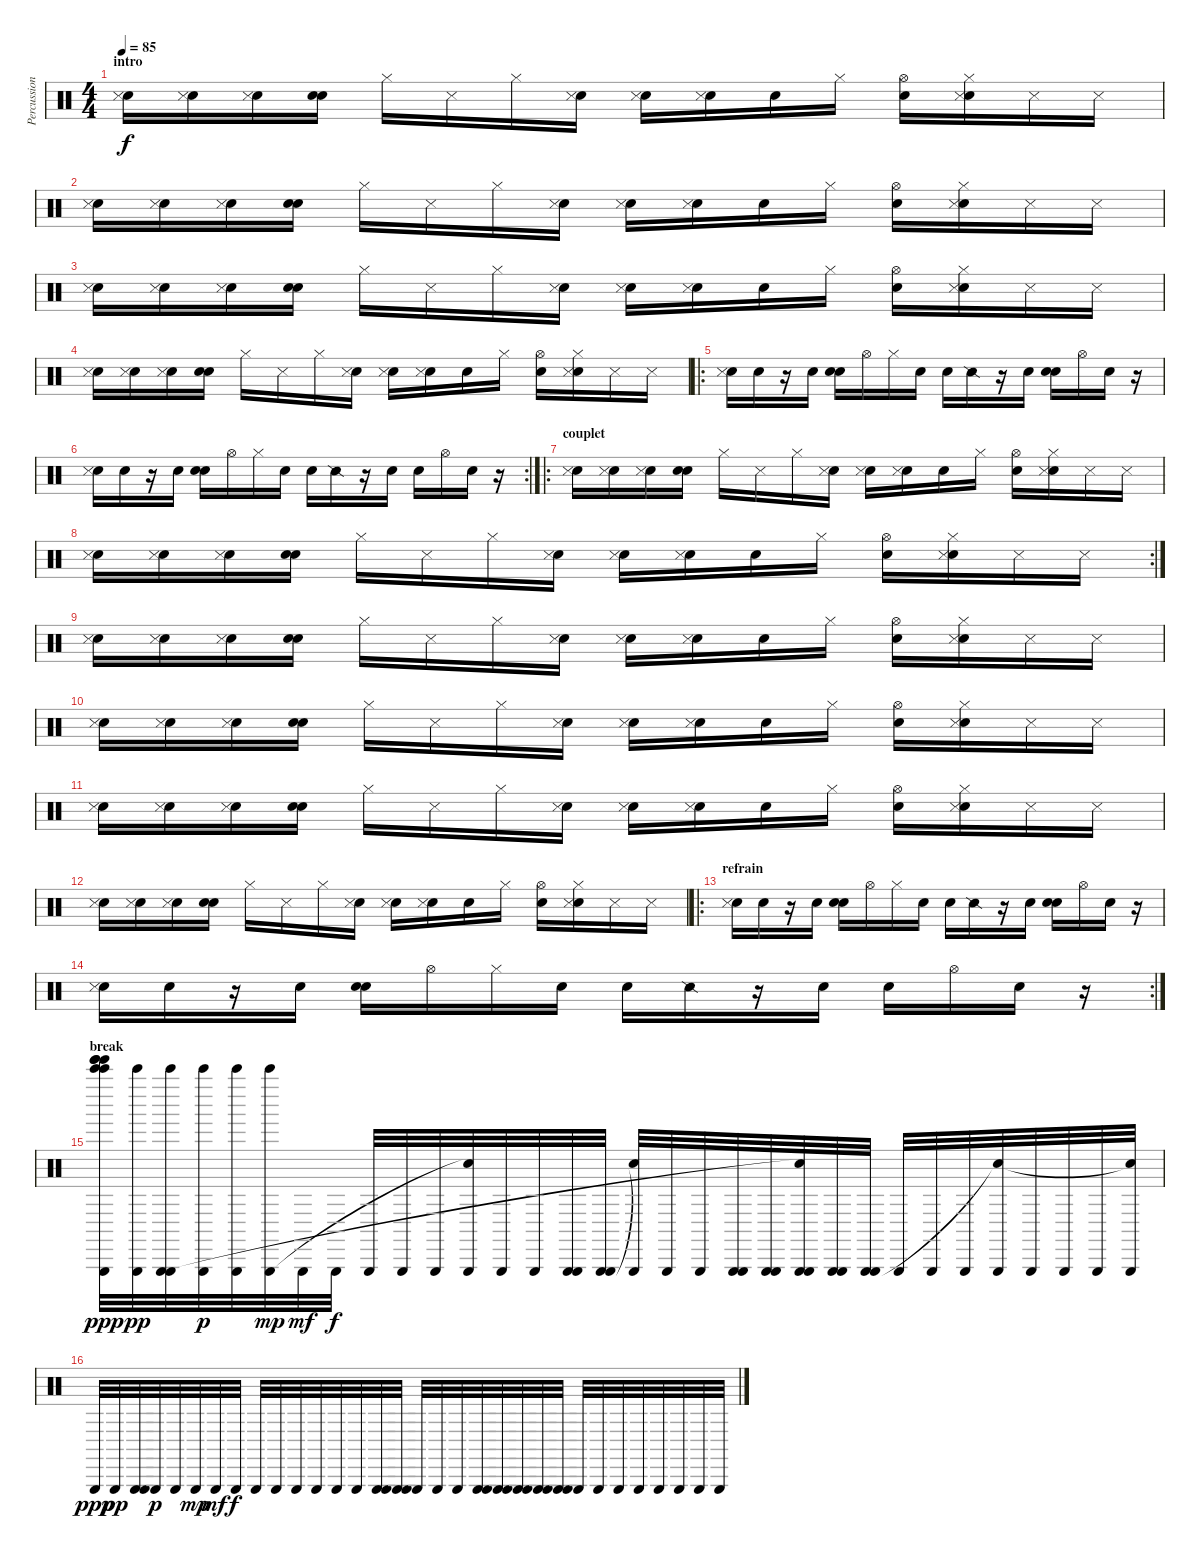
\track ("Percussions" "Percussion") {instrument percussion}
\staff {score}
\articulation defaults
\ts (4 4)
\section ("" "intro")
\tempo 85
\clef neutral
\ks c
("Metronome (bell)" "Snare (side stick) 3").16{dy f} ("Metronome (bell)" "Snare (side stick) 3").16 ("Metronome (bell)" "Snare (side stick) 3").16 ("Metronome (bell)" "Snare (hit) 2").16 "Hi-Hat (closed)".16 "Snare (side stick) 3".16 "Hi-Hat (closed)".16 ("Metronome (bell)" "Snare (side stick) 3").16 ("Metronome (bell)" "Snare (side stick) 3").16 ("Metronome (bell)" "Snare (side stick) 3").16 "Snare (hit) 2".16 "Hi-Hat (closed)".16 ("Metronome (bell)" "Hi-Hat (open)").16 ("Metronome (bell)" "Hi-Hat (closed)" "Snare (side stick) 3").16 "Snare (side stick) 3".16 "Snare (side stick) 3".16 |
("Metronome (bell)" "Snare (side stick) 3").16 ("Metronome (bell)" "Snare (side stick) 3").16 ("Metronome (bell)" "Snare (side stick) 3").16 ("Metronome (bell)" "Snare (hit) 2").16 "Hi-Hat (closed)".16 "Snare (side stick) 3".16 "Hi-Hat (closed)".16 ("Metronome (bell)" "Snare (side stick) 3").16 ("Metronome (bell)" "Snare (side stick) 3").16 ("Metronome (bell)" "Snare (side stick) 3").16 "Snare (hit) 2".16 "Hi-Hat (closed)".16 ("Metronome (bell)" "Hi-Hat (open)").16 ("Metronome (bell)" "Hi-Hat (closed)" "Snare (side stick) 3").16 "Snare (side stick) 3".16 "Snare (side stick) 3".16 |
("Metronome (bell)" "Snare (side stick) 3").16 ("Metronome (bell)" "Snare (side stick) 3").16 ("Metronome (bell)" "Snare (side stick) 3").16 ("Metronome (bell)" "Snare (hit) 2").16 "Hi-Hat (closed)".16 "Snare (side stick) 3".16 "Hi-Hat (closed)".16 ("Metronome (bell)" "Snare (side stick) 3").16 ("Metronome (bell)" "Snare (side stick) 3").16 ("Metronome (bell)" "Snare (side stick) 3").16 "Snare (hit) 2".16 "Hi-Hat (closed)".16 ("Metronome (bell)" "Hi-Hat (open)").16 ("Metronome (bell)" "Hi-Hat (closed)" "Snare (side stick) 3").16 "Snare (side stick) 3".16 "Snare (side stick) 3".16 |
("Metronome (bell)" "Snare (side stick) 3").16 ("Metronome (bell)" "Snare (side stick) 3").16 ("Metronome (bell)" "Snare (side stick) 3").16 ("Metronome (bell)" "Snare (hit) 2").16 "Hi-Hat (closed)".16 "Snare (side stick) 3".16 "Hi-Hat (closed)".16 ("Metronome (bell)" "Snare (side stick) 3").16 ("Metronome (bell)" "Snare (side stick) 3").16 ("Metronome (bell)" "Snare (side stick) 3").16 "Snare (hit) 2".16 "Hi-Hat (closed)".16 ("Metronome (bell)" "Hi-Hat (open)").16 ("Metronome (bell)" "Hi-Hat (closed)" "Snare (side stick) 3").16 "Snare (side stick) 3".16 "Snare (side stick) 3".16 |
\ro
("Metronome (bell)" "Snare (side stick) 3").16{volume 12} "Electric Snare (hit)".16 r.16 "Snare (hit) 2".16 ("Electric Snare (hit)" "Snare (hit) 2").16 "Hi-Hat (open)".16 "Hi-Hat (closed)".16 "Electric Snare (hit)".16 "Electric Snare (hit)".16 "Snare (side stick) 2".16 r.16 "Snare (hit) 2".16 ("Electric Snare (hit)" "Snare (hit) 2").16 "Hi-Hat (open)".16 "Electric Snare (hit)".16 r.16 |
\rc 2
("Metronome (bell)" "Snare (side stick) 3").16 "Electric Snare (hit)".16 r.16 "Snare (hit) 2".16 ("Electric Snare (hit)" "Snare (hit) 2").16 "Hi-Hat (open)".16 "Hi-Hat (closed)".16 "Electric Snare (hit)".16 "Electric Snare (hit)".16 "Snare (side stick) 2".16 r.16 "Snare (hit) 2".16 "Snare (hit) 2".16 "Hi-Hat (open)".16 "Electric Snare (hit)".16 r.16 |
\ro
\section ("" "couplet")
("Metronome (bell)" "Snare (side stick) 3").16 ("Metronome (bell)" "Snare (side stick) 3").16 ("Metronome (bell)" "Snare (side stick) 3").16 ("Metronome (bell)" "Snare (hit) 2").16 "Hi-Hat (closed)".16 "Snare (side stick) 3".16 "Hi-Hat (closed)".16 ("Metronome (bell)" "Snare (side stick) 3").16 ("Metronome (bell)" "Snare (side stick) 3").16 ("Metronome (bell)" "Snare (side stick) 3").16 "Snare (hit) 2".16 "Hi-Hat (closed)".16 ("Metronome (bell)" "Hi-Hat (open)").16 ("Metronome (bell)" "Hi-Hat (closed)" "Snare (side stick) 3").16 "Snare (side stick) 3".16 "Snare (side stick) 3".16 |
\rc 2
("Metronome (bell)" "Snare (side stick) 3").16 ("Metronome (bell)" "Snare (side stick) 3").16 ("Metronome (bell)" "Snare (side stick) 3").16 ("Metronome (bell)" "Snare (hit) 2").16 "Hi-Hat (closed)".16 "Snare (side stick) 3".16 "Hi-Hat (closed)".16 ("Metronome (bell)" "Snare (side stick) 3").16 ("Metronome (bell)" "Snare (side stick) 3").16 ("Metronome (bell)" "Snare (side stick) 3").16 "Snare (hit) 2".16 "Hi-Hat (closed)".16 ("Metronome (bell)" "Hi-Hat (open)").16 ("Metronome (bell)" "Hi-Hat (closed)" "Snare (side stick) 3").16 "Snare (side stick) 3".16 "Snare (side stick) 3".16 |
("Metronome (bell)" "Snare (side stick) 3").16 ("Metronome (bell)" "Snare (side stick) 3").16 ("Metronome (bell)" "Snare (side stick) 3").16 ("Metronome (bell)" "Snare (hit) 2").16 "Hi-Hat (closed)".16 "Snare (side stick) 3".16 "Hi-Hat (closed)".16 ("Metronome (bell)" "Snare (side stick) 3").16 ("Metronome (bell)" "Snare (side stick) 3").16 ("Metronome (bell)" "Snare (side stick) 3").16 "Snare (hit) 2".16 "Hi-Hat (closed)".16 ("Metronome (bell)" "Hi-Hat (open)").16 ("Metronome (bell)" "Hi-Hat (closed)" "Snare (side stick) 3").16 "Snare (side stick) 3".16 "Snare (side stick) 3".16 |
("Metronome (bell)" "Snare (side stick) 3").16 ("Metronome (bell)" "Snare (side stick) 3").16 ("Metronome (bell)" "Snare (side stick) 3").16 ("Metronome (bell)" "Snare (hit) 2").16 "Hi-Hat (closed)".16 "Snare (side stick) 3".16 "Hi-Hat (closed)".16 ("Metronome (bell)" "Snare (side stick) 3").16 ("Metronome (bell)" "Snare (side stick) 3").16 ("Metronome (bell)" "Snare (side stick) 3").16 "Snare (hit) 2".16 "Hi-Hat (closed)".16 ("Metronome (bell)" "Hi-Hat (open)").16 ("Metronome (bell)" "Hi-Hat (closed)" "Snare (side stick) 3").16 "Snare (side stick) 3".16 "Snare (side stick) 3".16 |
("Metronome (bell)" "Snare (side stick) 3").16 ("Metronome (bell)" "Snare (side stick) 3").16 ("Metronome (bell)" "Snare (side stick) 3").16 ("Metronome (bell)" "Snare (hit) 2").16 "Hi-Hat (closed)".16 "Snare (side stick) 3".16 "Hi-Hat (closed)".16 ("Metronome (bell)" "Snare (side stick) 3").16 ("Metronome (bell)" "Snare (side stick) 3").16 ("Metronome (bell)" "Snare (side stick) 3").16 "Snare (hit) 2".16 "Hi-Hat (closed)".16 ("Metronome (bell)" "Hi-Hat (open)").16 ("Metronome (bell)" "Hi-Hat (closed)" "Snare (side stick) 3").16 "Snare (side stick) 3".16 "Snare (side stick) 3".16 |
("Metronome (bell)" "Snare (side stick) 3").16 ("Metronome (bell)" "Snare (side stick) 3").16 ("Metronome (bell)" "Snare (side stick) 3").16 ("Metronome (bell)" "Snare (hit) 2").16 "Hi-Hat (closed)".16 "Snare (side stick) 3".16 "Hi-Hat (closed)".16 ("Metronome (bell)" "Snare (side stick) 3").16 ("Metronome (bell)" "Snare (side stick) 3").16 ("Metronome (bell)" "Snare (side stick) 3").16 "Snare (hit) 2".16 "Hi-Hat (closed)".16 ("Metronome (bell)" "Hi-Hat (open)").16 ("Metronome (bell)" "Hi-Hat (closed)" "Snare (side stick) 3").16 "Snare (side stick) 3".16 "Snare (side stick) 3".16 |
\ro
\section ("" "refrain")
("Metronome (bell)" "Snare (side stick) 3").16 "Electric Snare (hit)".16 r.16 "Snare (hit) 2".16 ("Electric Snare (hit)" "Snare (hit) 2").16 "Hi-Hat (open)".16 "Hi-Hat (closed)".16 "Electric Snare (hit)".16 "Electric Snare (hit)".16 "Snare (side stick) 2".16 r.16 "Snare (hit) 2".16 ("Electric Snare (hit)" "Snare (hit) 2").16 "Hi-Hat (open)".16 "Electric Snare (hit)".16 r.16 |
\rc 2
("Metronome (bell)" "Snare (side stick) 3").16 "Electric Snare (hit)".16 r.16 "Snare (hit) 2".16 ("Electric Snare (hit)" "Snare (hit) 2").16 "Hi-Hat (open)".16 "Hi-Hat (closed)".16 "Electric Snare (hit)".16 "Electric Snare (hit)".16 "Snare (side stick) 2".16 r.16 "Snare (hit) 2".16 "Snare (hit) 2".16 "Hi-Hat (open)".16 "Electric Snare (hit)".16 r.16 |
\section ("" "break")
("Bell Tree (hit)" "Triangle (hit)" "Tinkle Bell (hit)" "Tinkle Bell (hit)" "Bell Tree (hit)" "Tinkle Bell (hit)").32{dy ppp} ("Bell Tree (hit)" "Triangle (hit)").32{dy pp} ("Bell Tree (hit)" "Triangle (hit)" "Triangle (hit)").32 ("Bell Tree (hit)" "Triangle (hit)").32{dy p} ("Bell Tree (hit)" "Triangle (hit)").32 ("Bell Tree (hit)" "Triangle (hit)").32{dy mp} "Triangle (hit)".32{dy mf} "Triangle (hit)".32{dy f} "Triangle (hit)".32 "Triangle (hit)".32 "Triangle (hit)".32 ("Triangle (hit)" "Snare (hit)"{t}).32 "Triangle (hit)".32 "Triangle (hit)".32 ("Triangle (hit)" "Triangle (hit)").32 ("Triangle (hit)" "Triangle (hit)").32 ("Triangle (hit)" "Snare (hit)"{t}).32 "Triangle (hit)".32 "Triangle (hit)".32 ("Triangle (hit)" "Triangle (hit)").32 ("Triangle (hit)" "Triangle (hit)").32 ("Triangle (hit)" "Triangle (hit)" "Snare (hit)"{t}).32 ("Triangle (hit)" "Triangle (hit)").32 ("Triangle (hit)" "Triangle (hit)").32 "Triangle (hit)".32 "Triangle (hit)".32 "Triangle (hit)".32 ("Triangle (hit)" "Snare (hit)"{t}).32 "Triangle (hit)".32 "Triangle (hit)".32 "Triangle (hit)".32 ("Triangle (hit)" "Snare (hit)"{t}).32 |
"Triangle (hit)".32{dy ppp} "Triangle (hit)".32{dy pp} ("Triangle (hit)" "Triangle (hit)").32 "Triangle (hit)".32{dy p} "Triangle (hit)".32 "Triangle (hit)".32{dy mp} "Triangle (hit)".32{dy mf} "Triangle (hit)".32{dy f} "Triangle (hit)".32 "Triangle (hit)".32 "Triangle (hit)".32 "Triangle (hit)".32 "Triangle (hit)".32 "Triangle (hit)".32 ("Triangle (hit)" "Triangle (hit)").32 ("Triangle (hit)" "Triangle (hit)").32 "Triangle (hit)".32 "Triangle (hit)".32 "Triangle (hit)".32 ("Triangle (hit)" "Triangle (hit)").32 ("Triangle (hit)" "Triangle (hit)").32 ("Triangle (hit)" "Triangle (hit)").32 ("Triangle (hit)" "Triangle (hit)").32 ("Triangle (hit)" "Triangle (hit)").32 "Triangle (hit)".32 "Triangle (hit)".32 "Triangle (hit)".32 "Triangle (hit)".32 "Triangle (hit)".32 "Triangle (hit)".32 "Triangle (hit)".32 "Triangle (hit)".32
